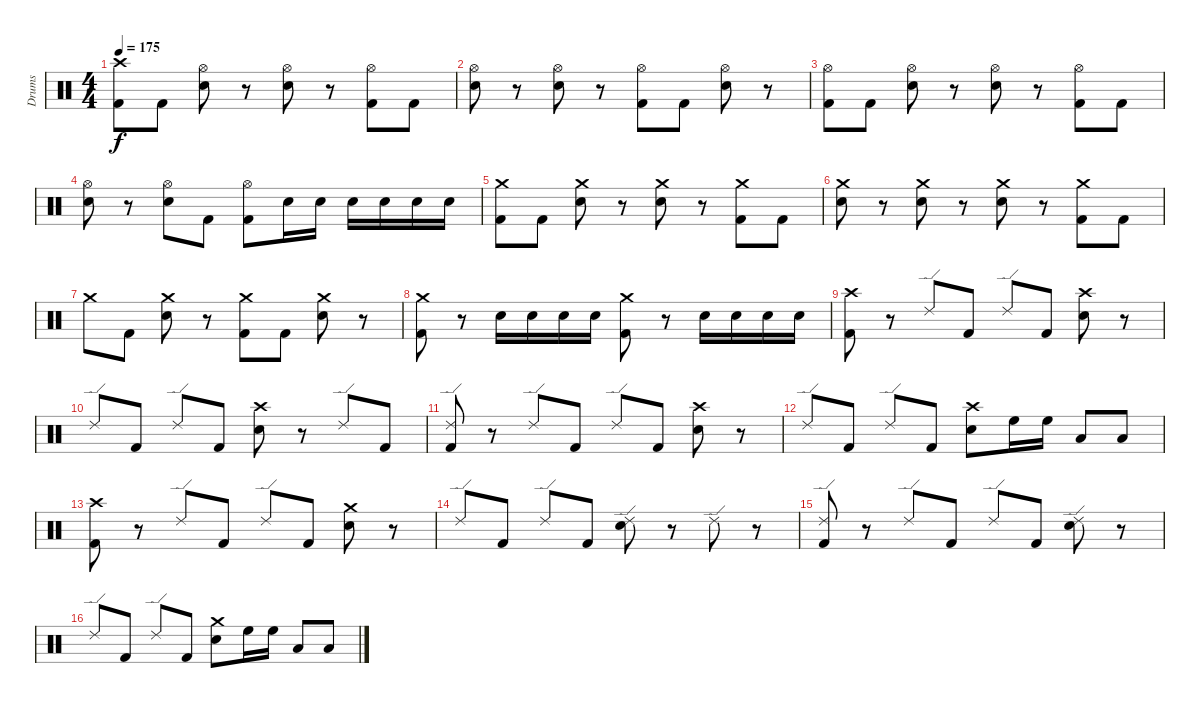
\track ("Drums" "Drums") {instrument percussion}
\staff {score}
\articulation defaults
\ts (4 4)
\tempo 175
\clef neutral
\ks c
("Crash high (hit)" "Kick (hit) 2").8{dy f} "Kick (hit) 2".8 ("Hi-Hat (open)" "Snare (hit) 2").8 r.8 ("Hi-Hat (open)" "Snare (hit) 2").8 r.8 ("Hi-Hat (open)" "Kick (hit) 2").8 "Kick (hit) 2".8 |
("Hi-Hat (open)" "Snare (hit) 2").8 r.8 ("Hi-Hat (open)" "Snare (hit) 2").8 r.8 ("Hi-Hat (open)" "Kick (hit) 2").8 "Kick (hit) 2".8 ("Hi-Hat (open)" "Snare (hit) 2").8 r.8 |
("Hi-Hat (open)" "Kick (hit) 2").8 "Kick (hit) 2".8 ("Hi-Hat (open)" "Snare (hit) 2").8 r.8 ("Hi-Hat (open)" "Snare (hit) 2").8 r.8 ("Hi-Hat (open)" "Kick (hit) 2").8 "Kick (hit) 2".8 |
("Hi-Hat (open)" "Snare (hit) 2").8 r.8 ("Hi-Hat (open)" "Snare (hit) 2").8 "Kick (hit) 2".8 ("Hi-Hat (open)" "Kick (hit) 2").8 "Snare (hit) 2".16 "Snare (hit) 2".16 "Snare (hit) 2".16 "Snare (hit) 2".16 "Snare (hit) 2".16 "Snare (hit) 2".16 |
("Crash medium (hit)" "Kick (hit) 2").8 "Kick (hit) 2".8 ("Crash medium (hit)" "Snare (hit) 2").8 r.8 ("Crash medium (hit)" "Snare (hit) 2").8 r.8 ("Crash medium (hit)" "Kick (hit) 2").8 "Kick (hit) 2".8 |
("Crash medium (hit)" "Snare (hit) 2").8 r.8 ("Crash medium (hit)" "Snare (hit) 2").8 r.8 ("Crash medium (hit)" "Snare (hit) 2").8 r.8 ("Crash medium (hit)" "Kick (hit) 2").8 "Kick (hit) 2".8 |
"Crash medium (hit)".8 "Kick (hit) 2".8 ("Crash medium (hit)" "Snare (hit) 2").8 r.8 ("Crash medium (hit)" "Kick (hit) 2").8 "Kick (hit) 2".8 ("Crash medium (hit)" "Snare (hit) 2").8 r.8 |
("Crash medium (hit)" "Kick (hit) 2").8 r.8 "Snare (hit) 2".16 "Snare (hit) 2".16 "Snare (hit) 2".16 "Snare (hit) 2".16 ("Crash medium (hit)" "Kick (hit) 2").8 r.8 "Snare (hit) 2".16 "Snare (hit) 2".16 "Snare (hit) 2".16 "Snare (hit) 2".16 |
("Crash high (hit)" "Kick (hit) 2").8 r.8 "Ride (edge) 2".8 "Kick (hit) 2".8 "Ride (edge) 2".8 "Kick (hit) 2".8 ("Crash high (hit)" "Snare (hit) 2").8 r.8 |
"Ride (edge) 2".8 "Kick (hit) 2".8 "Ride (edge) 2".8 "Kick (hit) 2".8 ("Crash high (hit)" "Snare (hit) 2").8 r.8 "Ride (edge) 2".8 "Kick (hit) 2".8 |
("Ride (edge) 2" "Kick (hit) 2").8 r.8 "Ride (edge) 2".8 "Kick (hit) 2".8 "Ride (edge) 2".8 "Kick (hit) 2".8 ("Crash high (hit)" "Snare (hit) 2").8 r.8 |
"Ride (edge) 2".8 "Kick (hit) 2".8 "Ride (edge) 2".8 "Kick (hit) 2".8 ("Crash high (hit)" "Snare (hit) 2").8 "High Floor Tom (hit)".16 "High Floor Tom (hit)".16 "Low Floor Tom (hit)".8 "Low Floor Tom (hit)".8 |
("Crash high (hit)" "Kick (hit) 2").8 r.8 "Ride (edge) 2".8 "Kick (hit) 2".8 "Ride (edge) 2".8 "Kick (hit) 2".8 ("Crash medium (hit)" "Snare (hit) 2").8 r.8 |
"Ride (edge) 2".8 "Kick (hit) 2".8 "Ride (edge) 2".8 "Kick (hit) 2".8 ("Ride (edge) 2" "Snare (hit) 2").8 r.8 "Ride (edge) 2".8 r.8 |
("Ride (edge) 2" "Kick (hit) 2").8 r.8 "Ride (edge) 2".8 "Kick (hit) 2".8 "Ride (edge) 2".8 "Kick (hit) 2".8 ("Ride (edge) 2" "Snare (hit) 2").8 r.8 |
"Ride (edge) 2".8 "Kick (hit) 2".8 "Ride (edge) 2".8 "Kick (hit) 2".8 ("Crash medium (hit)" "Snare (hit) 2").8 "High Floor Tom (hit)".16 "High Floor Tom (hit)".16 "Low Floor Tom (hit)".8 "Low Floor Tom (hit)".8
